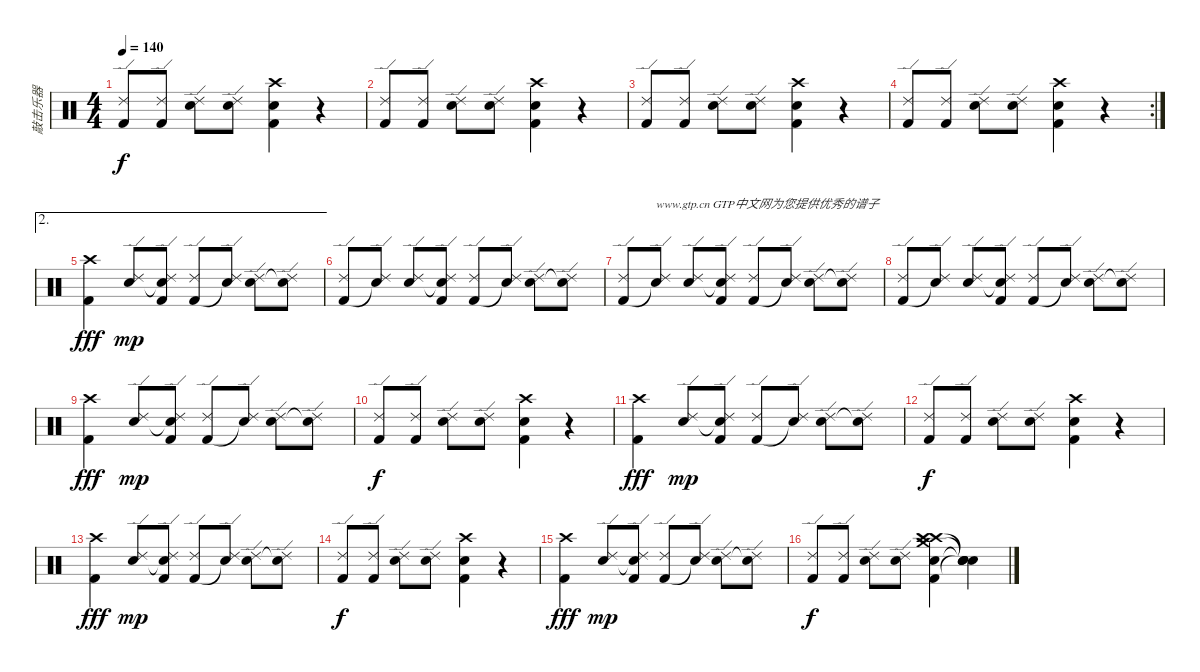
\track ("敲击乐器" "敲击乐器") {instrument percussion}
\staff {score}
\articulation defaults
\ts (4 4)
\tempo 140
\clef neutral
\ks c
("Kick (hit) 2" "Ride (edge) 2").8{dy f} ("Kick (hit) 2" "Ride (edge) 2").8 ("Snare (hit) 2" "Ride (edge) 2").8 ("Snare (hit) 2" "Ride (edge) 2").8 ("Crash high (hit)" "Snare (hit) 2" "Kick (hit) 2").4 r.4 |
("Kick (hit) 2" "Ride (edge) 2").8 ("Kick (hit) 2" "Ride (edge) 2").8 ("Snare (hit) 2" "Ride (edge) 2").8 ("Snare (hit) 2" "Ride (edge) 2").8 ("Crash high (hit)" "Snare (hit) 2" "Kick (hit) 2").4 r.4 |
("Kick (hit) 2" "Ride (edge) 2").8 ("Kick (hit) 2" "Ride (edge) 2").8 ("Snare (hit) 2" "Ride (edge) 2").8 ("Snare (hit) 2" "Ride (edge) 2").8 ("Crash high (hit)" "Snare (hit) 2" "Kick (hit) 2").4 r.4 |
\rc 2
("Kick (hit) 2" "Ride (edge) 2").8 ("Kick (hit) 2" "Ride (edge) 2").8 ("Snare (hit) 2" "Ride (edge) 2").8 ("Snare (hit) 2" "Ride (edge) 2").8 ("Crash high (hit)" "Snare (hit) 2" "Kick (hit) 2").4 r.4 |
\ae 2
("Kick (hit) 2" "Crash high (hit)").4{dy fff} ("Electric Snare (hit)" "Ride (edge) 2").8{dy mp} ("Snare (hit)"{t} "Kick (hit) 2" "Ride (edge) 2").8 ("Kick (hit) 2" "Ride (edge) 2").8 ("Snare (hit)"{t} "Ride (edge) 2").8 ("Electric Snare (hit)" "Ride (edge) 2").8 ("Snare (hit)"{t} "Ride (edge) 2").8 |
("Kick (hit) 2" "Ride (edge) 2").8 ("Snare (hit)"{t} "Ride (edge) 2").8 ("Electric Snare (hit)" "Ride (edge) 2").8 ("Snare (hit)"{t} "Kick (hit) 2" "Ride (edge) 2").8 ("Kick (hit) 2" "Ride (edge) 2").8 ("Snare (hit)"{t} "Ride (edge) 2").8 ("Electric Snare (hit)" "Ride (edge) 2").8 ("Snare (hit)"{t} "Ride (edge) 2").8 |
("Kick (hit) 2" "Ride (edge) 2").8 ("Snare (hit)"{t} "Ride (edge) 2").8{txt "www.gtp.cn GTP中文网为您提供优秀的谱子"} ("Electric Snare (hit)" "Ride (edge) 2").8 ("Snare (hit)"{t} "Kick (hit) 2" "Ride (edge) 2").8 ("Kick (hit) 2" "Ride (edge) 2").8 ("Snare (hit)"{t} "Ride (edge) 2").8 ("Electric Snare (hit)" "Ride (edge) 2").8 ("Snare (hit)"{t} "Ride (edge) 2").8 |
("Kick (hit) 2" "Ride (edge) 2").8 ("Snare (hit)"{t} "Ride (edge) 2").8 ("Electric Snare (hit)" "Ride (edge) 2").8 ("Snare (hit)"{t} "Kick (hit) 2" "Ride (edge) 2").8 ("Kick (hit) 2" "Ride (edge) 2").8 ("Snare (hit)"{t} "Ride (edge) 2").8 ("Electric Snare (hit)" "Ride (edge) 2").8 ("Snare (hit)"{t} "Ride (edge) 2").8 |
("Kick (hit) 2" "Crash high (hit)").4{dy fff} ("Electric Snare (hit)" "Ride (edge) 2").8{dy mp} ("Snare (hit)"{t} "Kick (hit) 2" "Ride (edge) 2").8 ("Kick (hit) 2" "Ride (edge) 2").8 ("Snare (hit)"{t} "Ride (edge) 2").8 ("Electric Snare (hit)" "Ride (edge) 2").8 ("Snare (hit)"{t} "Ride (edge) 2").8 |
("Kick (hit) 2" "Ride (edge) 2").8{dy f} ("Kick (hit) 2" "Ride (edge) 2").8 ("Snare (hit) 2" "Ride (edge) 2").8 ("Snare (hit) 2" "Ride (edge) 2").8 ("Crash high (hit)" "Snare (hit) 2" "Kick (hit) 2").4 r.4 |
("Kick (hit) 2" "Crash high (hit)").4{dy fff} ("Electric Snare (hit)" "Ride (edge) 2").8{dy mp} ("Snare (hit)"{t} "Kick (hit) 2" "Ride (edge) 2").8 ("Kick (hit) 2" "Ride (edge) 2").8 ("Snare (hit)"{t} "Ride (edge) 2").8 ("Electric Snare (hit)" "Ride (edge) 2").8 ("Snare (hit)"{t} "Ride (edge) 2").8 |
("Kick (hit) 2" "Ride (edge) 2").8{dy f} ("Kick (hit) 2" "Ride (edge) 2").8 ("Snare (hit) 2" "Ride (edge) 2").8 ("Snare (hit) 2" "Ride (edge) 2").8 ("Crash high (hit)" "Snare (hit) 2" "Kick (hit) 2").4 r.4 |
("Kick (hit) 2" "Crash high (hit)").4{dy fff} ("Electric Snare (hit)" "Ride (edge) 2").8{dy mp} ("Snare (hit)"{t} "Kick (hit) 2" "Ride (edge) 2").8 ("Kick (hit) 2" "Ride (edge) 2").8 ("Snare (hit)"{t} "Ride (edge) 2").8 ("Electric Snare (hit)" "Ride (edge) 2").8 ("Snare (hit)"{t} "Ride (edge) 2").8 |
("Kick (hit) 2" "Ride (edge) 2").8{dy f} ("Kick (hit) 2" "Ride (edge) 2").8 ("Snare (hit) 2" "Ride (edge) 2").8 ("Snare (hit) 2" "Ride (edge) 2").8 ("Crash high (hit)" "Snare (hit) 2" "Kick (hit) 2").4 r.4 |
("Kick (hit) 2" "Crash high (hit)").4{dy fff} ("Electric Snare (hit)" "Ride (edge) 2").8{dy mp} ("Snare (hit)"{t} "Kick (hit) 2" "Ride (edge) 2").8 ("Kick (hit) 2" "Ride (edge) 2").8 ("Snare (hit)"{t} "Ride (edge) 2").8 ("Electric Snare (hit)" "Ride (edge) 2").8 ("Snare (hit)"{t} "Ride (edge) 2").8 |
("Kick (hit) 2" "Ride (edge) 2").8{dy f} ("Kick (hit) 2" "Ride (edge) 2").8 ("Snare (hit) 2" "Ride (edge) 2").8 ("Snare (hit) 2" "Ride (edge) 2").8 ("Crash high (hit)" "Crash medium (hit)" "Snare (hit) 2" "Kick (hit) 2" "Crash high (hit)").4 ("Snare (hit)"{t} "Snare (hit)"{t} "Snare (hit)"{t} "Snare (hit)"{t}).4
